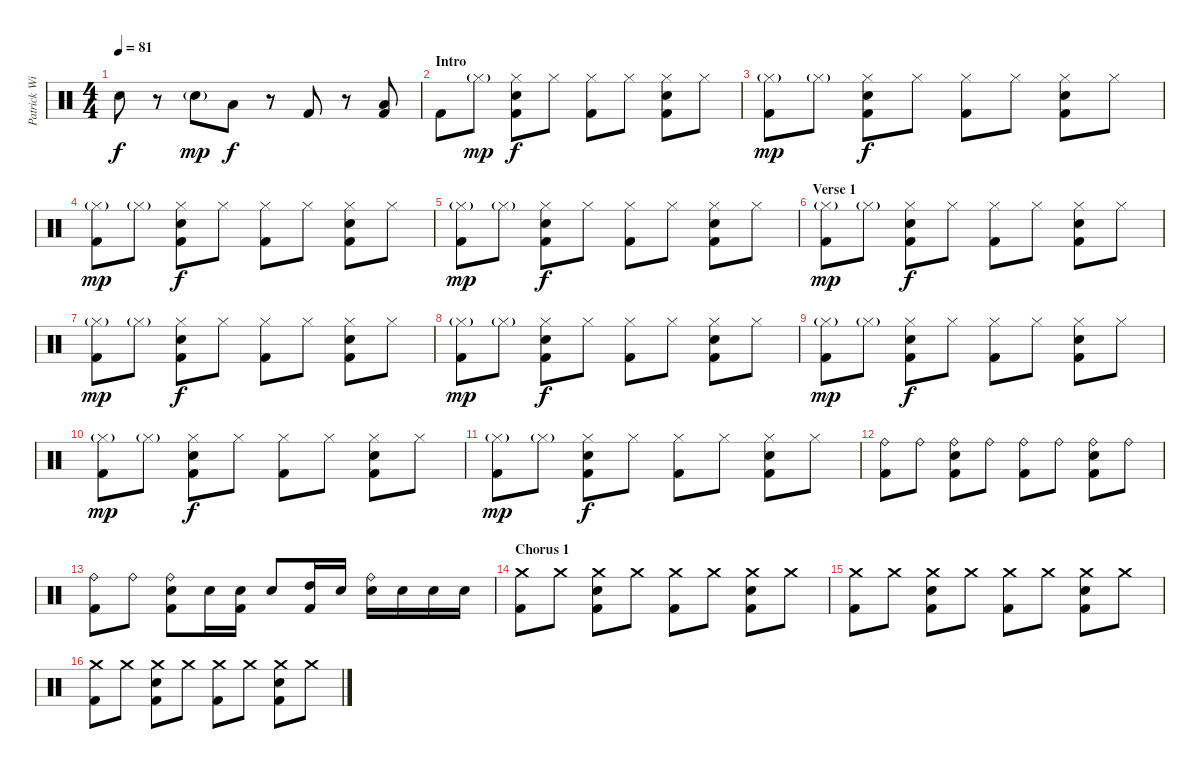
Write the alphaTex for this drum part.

\track ("Patrick Wilson" "Patrick Wi") {instrument percussion}
\staff {score}
\articulation defaults
\ts (4 4)
\tempo 81
\clef neutral
\ks c "Electric Snare (hit)".8{dy f}
r.8 "Electric Snare (hit)"{g}.8{dy mp} "Low Tom (hit)".8{dy f} r.8 "Kick (hit) 2".8 r.8 ("Low Floor Tom (hit)" "Kick (hit) 2").8 |
\section ("" "Intro")
"Kick (hit) 2".8 "Hi-Hat (closed)"{g}.8{dy mp} ("Hi-Hat (closed)" "Electric Snare (hit)" "Kick (hit) 2").8{dy f} "Hi-Hat (closed)".8 ("Hi-Hat (closed)" "Kick (hit) 2").8 "Hi-Hat (closed)".8 ("Hi-Hat (closed)" "Electric Snare (hit)" "Kick (hit) 2").8 "Hi-Hat (closed)".8 |
("Hi-Hat (closed)"{g} "Kick (hit) 2").8{dy mp} "Hi-Hat (closed)"{g}.8 ("Hi-Hat (closed)" "Electric Snare (hit)" "Kick (hit) 2").8{dy f} "Hi-Hat (closed)".8 ("Hi-Hat (closed)" "Kick (hit) 2").8 "Hi-Hat (closed)".8 ("Hi-Hat (closed)" "Electric Snare (hit)" "Kick (hit) 2").8 "Hi-Hat (closed)".8 |
("Hi-Hat (closed)"{g} "Kick (hit) 2").8{dy mp} "Hi-Hat (closed)"{g}.8 ("Hi-Hat (closed)" "Electric Snare (hit)" "Kick (hit) 2").8{dy f} "Hi-Hat (closed)".8 ("Hi-Hat (closed)" "Kick (hit) 2").8 "Hi-Hat (closed)".8 ("Hi-Hat (closed)" "Electric Snare (hit)" "Kick (hit) 2").8 "Hi-Hat (closed)".8 |
("Hi-Hat (closed)"{g} "Kick (hit) 2").8{dy mp} "Hi-Hat (closed)"{g}.8 ("Hi-Hat (closed)" "Electric Snare (hit)" "Kick (hit) 2").8{dy f} "Hi-Hat (closed)".8 ("Hi-Hat (closed)" "Kick (hit) 2").8 "Hi-Hat (closed)".8 ("Hi-Hat (closed)" "Electric Snare (hit)" "Kick (hit) 2").8 "Hi-Hat (closed)".8 |
\section ("" "Verse 1")
("Hi-Hat (closed)"{g} "Kick (hit) 2").8{dy mp} "Hi-Hat (closed)"{g}.8 ("Hi-Hat (closed)" "Electric Snare (hit)" "Kick (hit) 2").8{dy f} "Hi-Hat (closed)".8 ("Hi-Hat (closed)" "Kick (hit) 2").8 "Hi-Hat (closed)".8 ("Hi-Hat (closed)" "Electric Snare (hit)" "Kick (hit) 2").8 "Hi-Hat (closed)".8 |
("Hi-Hat (closed)"{g} "Kick (hit) 2").8{dy mp} "Hi-Hat (closed)"{g}.8 ("Hi-Hat (closed)" "Electric Snare (hit)" "Kick (hit) 2").8{dy f} "Hi-Hat (closed)".8 ("Hi-Hat (closed)" "Kick (hit) 2").8 "Hi-Hat (closed)".8 ("Hi-Hat (closed)" "Electric Snare (hit)" "Kick (hit) 2").8 "Hi-Hat (closed)".8 |
("Hi-Hat (closed)"{g} "Kick (hit) 2").8{dy mp} "Hi-Hat (closed)"{g}.8 ("Hi-Hat (closed)" "Electric Snare (hit)" "Kick (hit) 2").8{dy f} "Hi-Hat (closed)".8 ("Hi-Hat (closed)" "Kick (hit) 2").8 "Hi-Hat (closed)".8 ("Hi-Hat (closed)" "Electric Snare (hit)" "Kick (hit) 2").8 "Hi-Hat (closed)".8 |
("Hi-Hat (closed)"{g} "Kick (hit) 2").8{dy mp} "Hi-Hat (closed)"{g}.8 ("Hi-Hat (closed)" "Electric Snare (hit)" "Kick (hit) 2").8{dy f} "Hi-Hat (closed)".8 ("Hi-Hat (closed)" "Kick (hit) 2").8 "Hi-Hat (closed)".8 ("Hi-Hat (closed)" "Electric Snare (hit)" "Kick (hit) 2").8 "Hi-Hat (closed)".8 |
("Hi-Hat (closed)"{g} "Kick (hit) 2").8{dy mp} "Hi-Hat (closed)"{g}.8 ("Hi-Hat (closed)" "Electric Snare (hit)" "Kick (hit) 2").8{dy f} "Hi-Hat (closed)".8 ("Hi-Hat (closed)" "Kick (hit) 2").8 "Hi-Hat (closed)".8 ("Hi-Hat (closed)" "Electric Snare (hit)" "Kick (hit) 2").8 "Hi-Hat (closed)".8 |
("Hi-Hat (closed)"{g} "Kick (hit) 2").8{dy mp} "Hi-Hat (closed)"{g}.8 ("Hi-Hat (closed)" "Electric Snare (hit)" "Kick (hit) 2").8{dy f} "Hi-Hat (closed)".8 ("Hi-Hat (closed)" "Kick (hit) 2").8 "Hi-Hat (closed)".8 ("Hi-Hat (closed)" "Electric Snare (hit)" "Kick (hit) 2").8 "Hi-Hat (closed)".8 |
("Ride (bell)" "Kick (hit) 2").8 "Ride (bell)".8 ("Ride (bell)" "Electric Snare (hit)" "Kick (hit) 2").8 "Ride (bell)".8 ("Ride (bell)" "Kick (hit) 2").8 "Ride (bell)".8 ("Ride (bell)" "Electric Snare (hit)" "Kick (hit) 2").8 "Ride (bell)".8 |
("Ride (bell)" "Kick (hit) 2").8 "Ride (bell)".8 ("Ride (bell)" "Electric Snare (hit)" "Kick (hit) 2").8 "Electric Snare (hit)".16 ("Electric Snare (hit)" "Kick (hit) 2").16 "Electric Snare (hit)".8 ("High Tom (hit)" "Kick (hit) 2").16 "Electric Snare (hit)".16 ("Ride (bell)" "Electric Snare (hit)").16 "Electric Snare (hit)".16 "Electric Snare (hit)".16 "Electric Snare (hit)".16 |
\section ("" "Chorus 1")
("Crash medium (hit)" "Kick (hit) 2").8 "Crash medium (hit)".8 ("Crash medium (hit)" "Electric Snare (hit)" "Kick (hit) 2").8 "Crash medium (hit)".8 ("Crash medium (hit)" "Kick (hit) 2").8 "Crash medium (hit)".8 ("Crash medium (hit)" "Electric Snare (hit)" "Kick (hit) 2").8 "Crash medium (hit)".8 |
("Crash medium (hit)" "Kick (hit) 2").8 "Crash medium (hit)".8 ("Crash medium (hit)" "Electric Snare (hit)" "Kick (hit) 2").8 "Crash medium (hit)".8 ("Crash medium (hit)" "Kick (hit) 2").8 "Crash medium (hit)".8 ("Crash medium (hit)" "Electric Snare (hit)" "Kick (hit) 2").8 "Crash medium (hit)".8 |
("Crash medium (hit)" "Kick (hit) 2").8 "Crash medium (hit)".8 ("Crash medium (hit)" "Electric Snare (hit)" "Kick (hit) 2").8 "Crash medium (hit)".8 ("Crash medium (hit)" "Kick (hit) 2").8 "Crash medium (hit)".8 ("Crash medium (hit)" "Electric Snare (hit)" "Kick (hit) 2").8 "Crash medium (hit)".8
